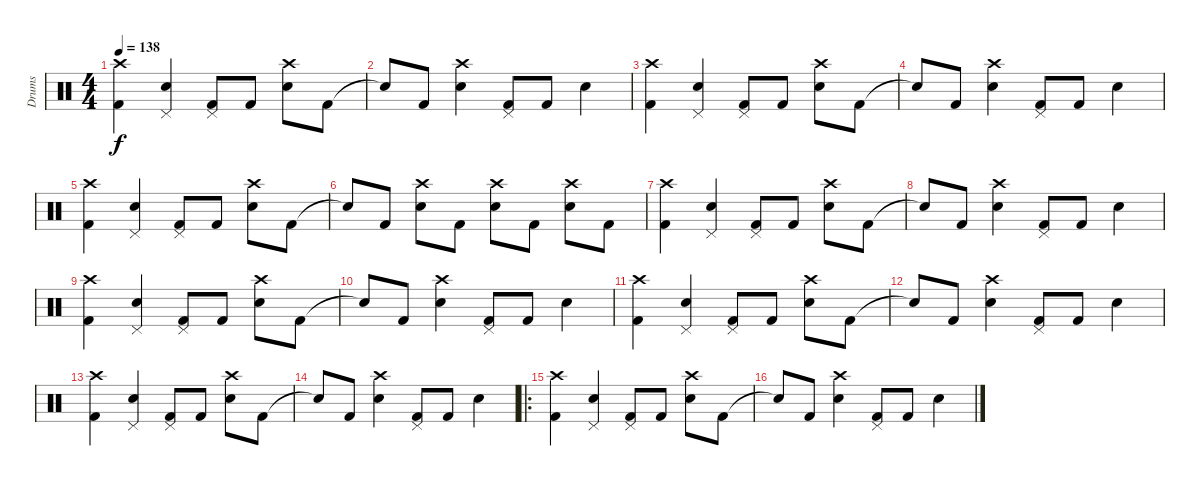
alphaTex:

\track ("Drums" "Drums") {instrument percussion}
\staff {score}
\articulation defaults
\ts (4 4)
\tempo 138
\clef neutral
\ks c
("Crash high (hit)" "Kick (hit) 2").4{dy f} ("Pedal Hi-Hat (hit)" "Snare (hit) 2").4 ("Pedal Hi-Hat (hit)" "Kick (hit) 2").8 "Kick (hit) 2".8 ("Crash high (hit)" "Snare (hit) 2").8 "Kick (hit) 2".8 |
"Snare (hit)"{t}.8 "Kick (hit) 2".8 ("Crash high (hit)" "Snare (hit) 2").4 ("Pedal Hi-Hat (hit)" "Kick (hit) 2").8 "Kick (hit) 2".8 "Snare (hit) 2".4 |
("Crash high (hit)" "Kick (hit) 2").4 ("Pedal Hi-Hat (hit)" "Snare (hit) 2").4 ("Pedal Hi-Hat (hit)" "Kick (hit) 2").8 "Kick (hit) 2".8 ("Crash high (hit)" "Snare (hit) 2").8 "Kick (hit) 2".8 |
"Snare (hit)"{t}.8 "Kick (hit) 2".8 ("Crash high (hit)" "Snare (hit) 2").4 ("Pedal Hi-Hat (hit)" "Kick (hit) 2").8 "Kick (hit) 2".8 "Snare (hit) 2".4 |
("Crash high (hit)" "Kick (hit) 2").4 ("Pedal Hi-Hat (hit)" "Snare (hit) 2").4 ("Pedal Hi-Hat (hit)" "Kick (hit) 2").8 "Kick (hit) 2".8 ("Crash high (hit)" "Snare (hit) 2").8 "Kick (hit) 2".8 |
"Snare (hit)"{t}.8 "Kick (hit) 2".8 ("Crash high (hit)" "Snare (hit) 2").8 "Kick (hit) 2".8 ("Crash high (hit)" "Snare (hit) 2").8 "Kick (hit) 2".8 ("Crash high (hit)" "Snare (hit) 2").8 "Kick (hit) 2".8 |
("Crash high (hit)" "Kick (hit) 2").4 ("Pedal Hi-Hat (hit)" "Snare (hit) 2").4 ("Pedal Hi-Hat (hit)" "Kick (hit) 2").8 "Kick (hit) 2".8 ("Crash high (hit)" "Snare (hit) 2").8 "Kick (hit) 2".8 |
"Snare (hit)"{t}.8 "Kick (hit) 2".8 ("Crash high (hit)" "Snare (hit) 2").4 ("Pedal Hi-Hat (hit)" "Kick (hit) 2").8 "Kick (hit) 2".8 "Snare (hit) 2".4 |
("Crash high (hit)" "Kick (hit) 2").4 ("Pedal Hi-Hat (hit)" "Snare (hit) 2").4 ("Pedal Hi-Hat (hit)" "Kick (hit) 2").8 "Kick (hit) 2".8 ("Crash high (hit)" "Snare (hit) 2").8 "Kick (hit) 2".8 |
"Snare (hit)"{t}.8 "Kick (hit) 2".8 ("Crash high (hit)" "Snare (hit) 2").4 ("Pedal Hi-Hat (hit)" "Kick (hit) 2").8 "Kick (hit) 2".8 "Snare (hit) 2".4 |
("Crash high (hit)" "Kick (hit) 2").4 ("Pedal Hi-Hat (hit)" "Snare (hit) 2").4 ("Pedal Hi-Hat (hit)" "Kick (hit) 2").8 "Kick (hit) 2".8 ("Crash high (hit)" "Snare (hit) 2").8 "Kick (hit) 2".8 |
"Snare (hit)"{t}.8 "Kick (hit) 2".8 ("Crash high (hit)" "Snare (hit) 2").4 ("Pedal Hi-Hat (hit)" "Kick (hit) 2").8 "Kick (hit) 2".8 "Snare (hit) 2".4 |
("Crash high (hit)" "Kick (hit) 2").4 ("Pedal Hi-Hat (hit)" "Snare (hit) 2").4 ("Pedal Hi-Hat (hit)" "Kick (hit) 2").8 "Kick (hit) 2".8 ("Crash high (hit)" "Snare (hit) 2").8 "Kick (hit) 2".8 |
"Snare (hit)"{t}.8 "Kick (hit) 2".8 ("Crash high (hit)" "Snare (hit) 2").4 ("Pedal Hi-Hat (hit)" "Kick (hit) 2").8 "Kick (hit) 2".8 "Snare (hit) 2".4 |
\ro
("Crash high (hit)" "Kick (hit) 2").4 ("Pedal Hi-Hat (hit)" "Snare (hit) 2").4 ("Pedal Hi-Hat (hit)" "Kick (hit) 2").8 "Kick (hit) 2".8 ("Crash high (hit)" "Snare (hit) 2").8 "Kick (hit) 2".8 |
"Snare (hit)"{t}.8 "Kick (hit) 2".8 ("Crash high (hit)" "Snare (hit) 2").4 ("Pedal Hi-Hat (hit)" "Kick (hit) 2").8 "Kick (hit) 2".8 "Snare (hit) 2".4
